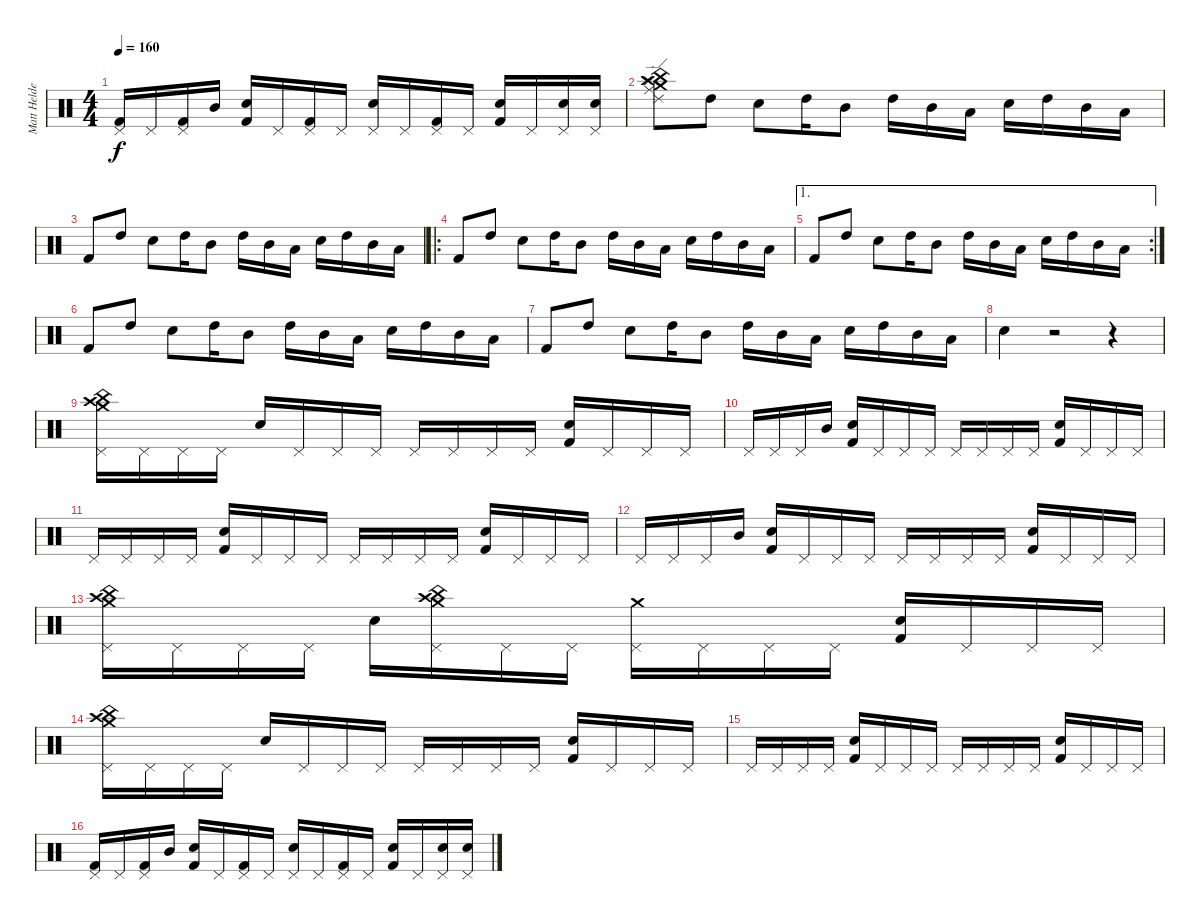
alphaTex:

\track ("Matt Helders" "Matt Helde") {instrument percussion}
\staff {score}
\articulation defaults
\ts (4 4)
\tempo 160
\clef neutral
\ks c
("Pedal Hi-Hat (hit)" "Kick (hit) 2").16{dy f} "Pedal Hi-Hat (hit)".16 ("Pedal Hi-Hat (hit)" "Kick (hit) 2").16 "Mid Tom (hit)".16 ("Snare (hit) 2" "Kick (hit) 2").16 "Pedal Hi-Hat (hit)".16 ("Pedal Hi-Hat (hit)" "Kick (hit) 2").16 "Pedal Hi-Hat (hit)".16 ("Pedal Hi-Hat (hit)" "Snare (hit)").16 "Pedal Hi-Hat (hit)".16 ("Pedal Hi-Hat (hit)" "Kick (hit) 2").16 "Pedal Hi-Hat (hit)".16 ("Snare (hit) 2" "Kick (hit) 2").16 "Pedal Hi-Hat (hit)".16 ("Pedal Hi-Hat (hit)" "Snare (hit) 2").16 ("Pedal Hi-Hat (hit)" "Snare (hit) 2").16 |
("Crash high (hit)" "China (hit)" "Ride (middle)" "Splash (hit)" "Crash medium (hit)" "Ride (edge) 2").8{volume 13} "High Tom (hit)".8 "Snare (hit) 2".8 "High Tom (hit)".16 "Mid Tom (hit)".8 "High Tom (hit)".16 "Mid Tom (hit)".16 "Low Tom (hit)".16 "Snare (hit) 2".16 "High Tom (hit)".16 "Mid Tom (hit)".16 "Low Tom (hit)".16 |
"Kick (hit) 2".8 "High Tom (hit)".8 "Snare (hit) 2".8 "High Tom (hit)".16 "Mid Tom (hit)".8 "High Tom (hit)".16 "Mid Tom (hit)".16 "Low Tom (hit)".16 "Snare (hit) 2".16 "High Tom (hit)".16 "Mid Tom (hit)".16 "Low Tom (hit)".16 |
\ro "Kick (hit) 2".8 "High Tom (hit)".8 "Snare (hit) 2".8 "High Tom (hit)".16 "Mid Tom (hit)".8 "High Tom (hit)".16 "Mid Tom (hit)".16 "Low Tom (hit)".16 "Snare (hit) 2".16 "High Tom (hit)".16 "Mid Tom (hit)".16 "Low Tom (hit)".16
|
\ae 1
\rc 2 "Kick (hit) 2".8 "High Tom (hit)".8 "Snare (hit) 2".8 "High Tom (hit)".16 "Mid Tom (hit)".8 "High Tom (hit)".16 "Mid Tom (hit)".16 "Low Tom (hit)".16 "Snare (hit) 2".16 "High Tom (hit)".16 "Mid Tom (hit)".16 "Low Tom (hit)".16
|
"Kick (hit) 2".8 "High Tom (hit)".8 "Snare (hit) 2".8 "High Tom (hit)".16 "Mid Tom (hit)".8 "High Tom (hit)".16 "Mid Tom (hit)".16 "Low Tom (hit)".16 "Snare (hit) 2".16 "High Tom (hit)".16 "Mid Tom (hit)".16 "Low Tom (hit)".16 |
"Kick (hit) 2".8 "High Tom (hit)".8 "Snare (hit) 2".8 "High Tom (hit)".16 "Mid Tom (hit)".8 "High Tom (hit)".16 "Mid Tom (hit)".16 "Low Tom (hit)".16 "Snare (hit) 2".16 "High Tom (hit)".16 "Mid Tom (hit)".16 "Low Tom (hit)".16 |
"Snare (hit) 2".4{volume 16} r.2 r.4 |
("Pedal Hi-Hat (hit)" "Crash medium (hit)" "Crash high (hit)" "China (hit)").16 "Pedal Hi-Hat (hit)".16 "Pedal Hi-Hat (hit)".16 "Pedal Hi-Hat (hit)".16 "Snare (hit) 2".16 "Pedal Hi-Hat (hit)".16 "Pedal Hi-Hat (hit)".16 "Pedal Hi-Hat (hit)".16 "Pedal Hi-Hat (hit)".16 "Pedal Hi-Hat (hit)".16 "Pedal Hi-Hat (hit)".16 "Pedal Hi-Hat (hit)".16 ("Snare (hit) 2" "Kick (hit) 2").16 "Pedal Hi-Hat (hit)".16 "Pedal Hi-Hat (hit)".16 "Pedal Hi-Hat (hit)".16 |
"Pedal Hi-Hat (hit)".16 "Pedal Hi-Hat (hit)".16 "Pedal Hi-Hat (hit)".16 "Mid Tom (hit)".16 ("Snare (hit) 2" "Kick (hit) 2").16 "Pedal Hi-Hat (hit)".16 "Pedal Hi-Hat (hit)".16 "Pedal Hi-Hat (hit)".16 "Pedal Hi-Hat (hit)".16 "Pedal Hi-Hat (hit)".16 "Pedal Hi-Hat (hit)".16 "Pedal Hi-Hat (hit)".16 ("Snare (hit) 2" "Kick (hit) 2").16 "Pedal Hi-Hat (hit)".16 "Pedal Hi-Hat (hit)".16 "Pedal Hi-Hat (hit)".16 |
"Pedal Hi-Hat (hit)".16 "Pedal Hi-Hat (hit)".16 "Pedal Hi-Hat (hit)".16 "Pedal Hi-Hat (hit)".16 ("Snare (hit) 2" "Kick (hit) 2").16 "Pedal Hi-Hat (hit)".16 "Pedal Hi-Hat (hit)".16 "Pedal Hi-Hat (hit)".16 "Pedal Hi-Hat (hit)".16 "Pedal Hi-Hat (hit)".16 "Pedal Hi-Hat (hit)".16 "Pedal Hi-Hat (hit)".16 ("Snare (hit) 2" "Kick (hit) 2").16 "Pedal Hi-Hat (hit)".16 "Pedal Hi-Hat (hit)".16 "Pedal Hi-Hat (hit)".16 |
"Pedal Hi-Hat (hit)".16 "Pedal Hi-Hat (hit)".16 "Pedal Hi-Hat (hit)".16 "Mid Tom (hit)".16 ("Snare (hit) 2" "Kick (hit) 2").16 "Pedal Hi-Hat (hit)".16 "Pedal Hi-Hat (hit)".16 "Pedal Hi-Hat (hit)".16 "Pedal Hi-Hat (hit)".16 "Pedal Hi-Hat (hit)".16 "Pedal Hi-Hat (hit)".16 "Pedal Hi-Hat (hit)".16 ("Snare (hit) 2" "Kick (hit) 2").16 "Pedal Hi-Hat (hit)".16 "Pedal Hi-Hat (hit)".16 "Pedal Hi-Hat (hit)".16 |
("Pedal Hi-Hat (hit)" "Crash medium (hit)" "Crash high (hit)" "China (hit)").16 "Pedal Hi-Hat (hit)".16 "Pedal Hi-Hat (hit)".16 "Pedal Hi-Hat (hit)".16 "Snare (hit) 2".16 ("Pedal Hi-Hat (hit)" "Crash medium (hit)" "Crash high (hit)" "China (hit)").16 "Pedal Hi-Hat (hit)".16 "Pedal Hi-Hat (hit)".16 ("Pedal Hi-Hat (hit)" "Crash medium (hit)").16 "Pedal Hi-Hat (hit)".16 "Pedal Hi-Hat (hit)".16 "Pedal Hi-Hat (hit)".16 ("Snare (hit) 2" "Kick (hit) 2").16 "Pedal Hi-Hat (hit)".16 "Pedal Hi-Hat (hit)".16 "Pedal Hi-Hat (hit)".16 |
("Pedal Hi-Hat (hit)" "Crash medium (hit)" "Crash high (hit)" "China (hit)").16 "Pedal Hi-Hat (hit)".16 "Pedal Hi-Hat (hit)".16 "Pedal Hi-Hat (hit)".16 "Snare (hit) 2".16 "Pedal Hi-Hat (hit)".16 "Pedal Hi-Hat (hit)".16 "Pedal Hi-Hat (hit)".16 "Pedal Hi-Hat (hit)".16 "Pedal Hi-Hat (hit)".16 "Pedal Hi-Hat (hit)".16 "Pedal Hi-Hat (hit)".16 ("Snare (hit) 2" "Kick (hit) 2").16 "Pedal Hi-Hat (hit)".16 "Pedal Hi-Hat (hit)".16 "Pedal Hi-Hat (hit)".16 |
"Pedal Hi-Hat (hit)".16 "Pedal Hi-Hat (hit)".16 "Pedal Hi-Hat (hit)".16 "Pedal Hi-Hat (hit)".16 ("Snare (hit) 2" "Kick (hit) 2").16 "Pedal Hi-Hat (hit)".16 "Pedal Hi-Hat (hit)".16 "Pedal Hi-Hat (hit)".16 "Pedal Hi-Hat (hit)".16 "Pedal Hi-Hat (hit)".16 "Pedal Hi-Hat (hit)".16 "Pedal Hi-Hat (hit)".16 ("Snare (hit) 2" "Kick (hit) 2").16 "Pedal Hi-Hat (hit)".16 "Pedal Hi-Hat (hit)".16 "Pedal Hi-Hat (hit)".16 |
("Pedal Hi-Hat (hit)" "Kick (hit) 2").16 "Pedal Hi-Hat (hit)".16 ("Pedal Hi-Hat (hit)" "Kick (hit) 2").16 "Mid Tom (hit)".16 ("Snare (hit) 2" "Kick (hit) 2").16 "Pedal Hi-Hat (hit)".16 ("Pedal Hi-Hat (hit)" "Kick (hit) 2").16 "Pedal Hi-Hat (hit)".16 ("Pedal Hi-Hat (hit)" "Snare (hit)").16 "Pedal Hi-Hat (hit)".16 ("Pedal Hi-Hat (hit)" "Kick (hit) 2").16 "Pedal Hi-Hat (hit)".16 ("Snare (hit) 2" "Kick (hit) 2").16 "Pedal Hi-Hat (hit)".16 ("Pedal Hi-Hat (hit)" "Snare (hit) 2").16 ("Pedal Hi-Hat (hit)" "Snare (hit) 2").16
